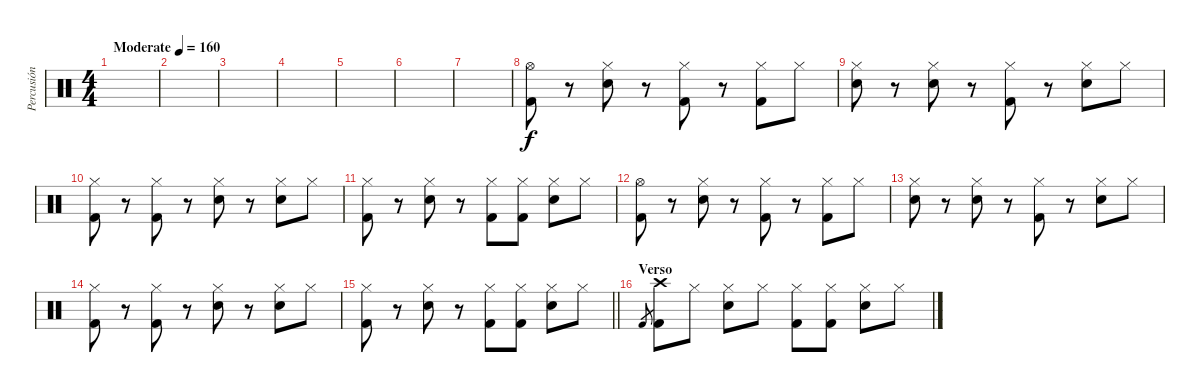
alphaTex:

\track ("Percusión" "Percusión") {instrument percussion}
\staff {score}
\articulation defaults
\ts (4 4)
\tempo (160 "Moderate")
\clef neutral
\ks c
|
|
|
|
|
|
|
("Hi-Hat (open)" "Kick (hit) 2").8 r.8 ("Hi-Hat (closed)" "Snare (hit) 2").8 r.8 ("Hi-Hat (closed)" "Kick (hit) 2").8 r.8 ("Hi-Hat (closed)" "Kick (hit) 2").8 "Hi-Hat (closed)".8 |
("Hi-Hat (closed)" "Snare (hit) 2").8 r.8 ("Hi-Hat (closed)" "Snare (hit) 2").8 r.8 ("Hi-Hat (closed)" "Kick (hit) 2").8 r.8 ("Hi-Hat (closed)" "Snare (hit) 2").8 "Hi-Hat (closed)".8 |
("Hi-Hat (closed)" "Kick (hit) 2").8 r.8 ("Hi-Hat (closed)" "Kick (hit) 2").8 r.8 ("Hi-Hat (closed)" "Snare (hit) 2").8 r.8 ("Hi-Hat (closed)" "Snare (hit) 2").8 "Hi-Hat (closed)".8 |
("Hi-Hat (closed)" "Kick (hit) 2").8 r.8 ("Hi-Hat (closed)" "Snare (hit) 2").8 r.8 ("Hi-Hat (closed)" "Kick (hit) 2").8 ("Hi-Hat (closed)" "Kick (hit) 2").8 ("Hi-Hat (closed)" "Snare (hit) 2").8 "Hi-Hat (closed)".8 |
("Hi-Hat (open)" "Kick (hit) 2").8 r.8 ("Hi-Hat (closed)" "Snare (hit) 2").8 r.8 ("Hi-Hat (closed)" "Kick (hit) 2").8 r.8 ("Hi-Hat (closed)" "Kick (hit) 2").8 "Hi-Hat (closed)".8 |
("Hi-Hat (closed)" "Snare (hit) 2").8 r.8 ("Hi-Hat (closed)" "Snare (hit) 2").8 r.8 ("Hi-Hat (closed)" "Kick (hit) 2").8 r.8 ("Hi-Hat (closed)" "Snare (hit) 2").8 "Hi-Hat (closed)".8 |
("Hi-Hat (closed)" "Kick (hit) 2").8 r.8 ("Hi-Hat (closed)" "Kick (hit) 2").8 r.8 ("Hi-Hat (closed)" "Snare (hit) 2").8 r.8 ("Hi-Hat (closed)" "Snare (hit) 2").8 "Hi-Hat (closed)".8 |
\barLineRight lightlight
("Hi-Hat (closed)" "Kick (hit) 2").8 r.8 ("Hi-Hat (closed)" "Snare (hit) 2").8 r.8 ("Hi-Hat (closed)" "Kick (hit) 2").8 ("Hi-Hat (closed)" "Kick (hit) 2").8 ("Hi-Hat (closed)" "Snare (hit) 2").8 "Hi-Hat (closed)".8 |
\section ("" "Verso")
"Kick (hit) 2".8{gr} ("Crash high (hit)" "Kick (hit) 2").8 "Hi-Hat (closed)".8 ("Hi-Hat (closed)" "Snare (hit) 2").8 "Hi-Hat (closed)".8 ("Hi-Hat (closed)" "Kick (hit) 2").8 ("Hi-Hat (closed)" "Kick (hit) 2").8 ("Hi-Hat (closed)" "Snare (hit) 2").8 "Hi-Hat (closed)".8
